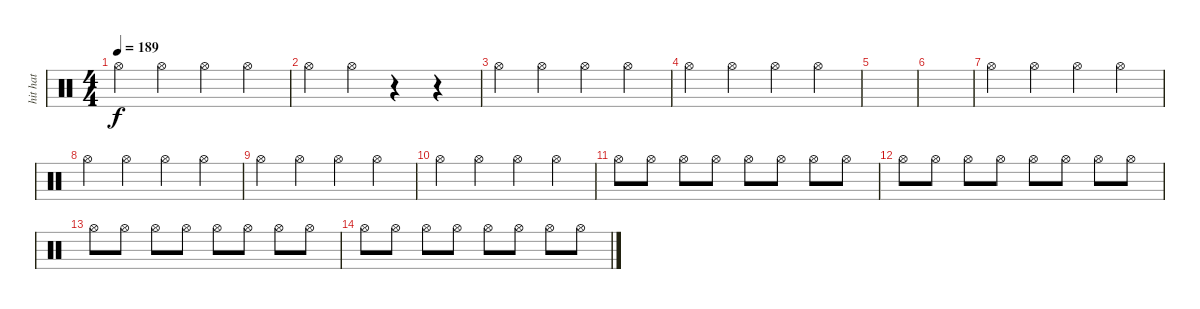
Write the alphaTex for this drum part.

\track ("hit hat" "hit hat") {instrument percussion}
\staff {score}
\articulation defaults
\ts (4 4)
\tempo 189
\clef neutral
\ks c "Hi-Hat (open)".4{dy f} "Hi-Hat (open)".4 "Hi-Hat (open)".4 "Hi-Hat (open)".4
|
"Hi-Hat (open)".4 "Hi-Hat (open)".4 r.4 r.4 |
"Hi-Hat (open)".4 "Hi-Hat (open)".4 "Hi-Hat (open)".4 "Hi-Hat (open)".4 |
"Hi-Hat (open)".4 "Hi-Hat (open)".4 "Hi-Hat (open)".4 "Hi-Hat (open)".4 |
|
|
"Hi-Hat (open)".4 "Hi-Hat (open)".4 "Hi-Hat (open)".4 "Hi-Hat (open)".4 |
"Hi-Hat (open)".4 "Hi-Hat (open)".4 "Hi-Hat (open)".4 "Hi-Hat (open)".4 |
"Hi-Hat (open)".4 "Hi-Hat (open)".4 "Hi-Hat (open)".4 "Hi-Hat (open)".4 |
"Hi-Hat (open)".4 "Hi-Hat (open)".4 "Hi-Hat (open)".4 "Hi-Hat (open)".4 |
"Hi-Hat (open)".8 "Hi-Hat (open)".8 "Hi-Hat (open)".8 "Hi-Hat (open)".8 "Hi-Hat (open)".8 "Hi-Hat (open)".8 "Hi-Hat (open)".8 "Hi-Hat (open)".8 |
"Hi-Hat (open)".8 "Hi-Hat (open)".8 "Hi-Hat (open)".8 "Hi-Hat (open)".8 "Hi-Hat (open)".8 "Hi-Hat (open)".8 "Hi-Hat (open)".8 "Hi-Hat (open)".8 |
"Hi-Hat (open)".8 "Hi-Hat (open)".8 "Hi-Hat (open)".8 "Hi-Hat (open)".8 "Hi-Hat (open)".8 "Hi-Hat (open)".8 "Hi-Hat (open)".8 "Hi-Hat (open)".8 |
"Hi-Hat (open)".8 "Hi-Hat (open)".8 "Hi-Hat (open)".8 "Hi-Hat (open)".8 "Hi-Hat (open)".8 "Hi-Hat (open)".8 "Hi-Hat (open)".8 "Hi-Hat (open)".8
